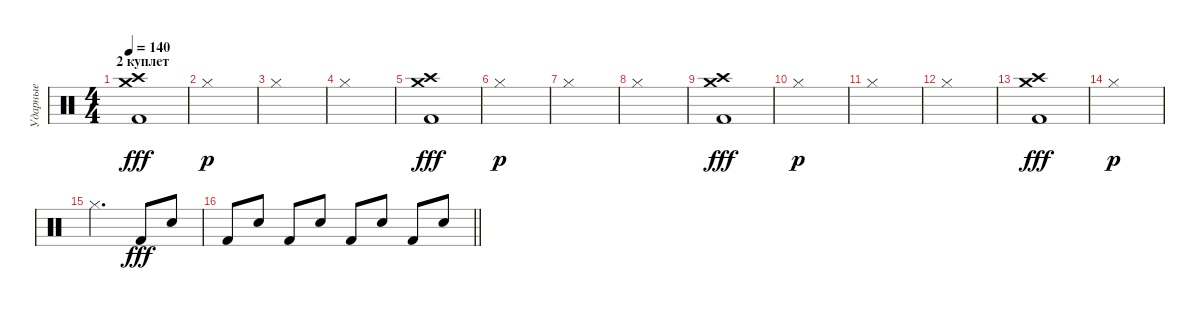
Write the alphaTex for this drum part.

\track ("Ударные" "Ударные") {instrument percussion}
\staff {score}
\articulation defaults
\ts (4 4)
\section ("" "2 куплет")
\tempo 140
\clef neutral
\ks c
("Crash medium (hit)" "Crash high (hit)" "Kick (hit) 2").1{dy fff} |
"Hi-Hat (closed)".1{dy p} |
"Hi-Hat (closed)".1 |
"Hi-Hat (closed)".1 |
("Crash medium (hit)" "Crash high (hit)" "Kick (hit) 2").1{dy fff} |
"Hi-Hat (closed)".1{dy p} |
"Hi-Hat (closed)".1 |
"Hi-Hat (closed)".1 |
("Crash medium (hit)" "Crash high (hit)" "Kick (hit) 2").1{dy fff} |
"Hi-Hat (closed)".1{dy p} |
"Hi-Hat (closed)".1 |
"Hi-Hat (closed)".1 |
("Crash medium (hit)" "Crash high (hit)" "Kick (hit) 2").1{dy fff} |
"Hi-Hat (closed)".1{dy p} |
"Hi-Hat (closed)".2{d} "Kick (hit) 2".8{dy fff} "Snare (hit) 2".8 |
\barLineRight lightlight "Kick (hit) 2".8 "Snare (hit) 2".8 "Kick (hit) 2".8 "Snare (hit) 2".8 "Kick (hit) 2".8 "Snare (hit) 2".8 "Kick (hit) 2".8 "Snare (hit) 2".8
